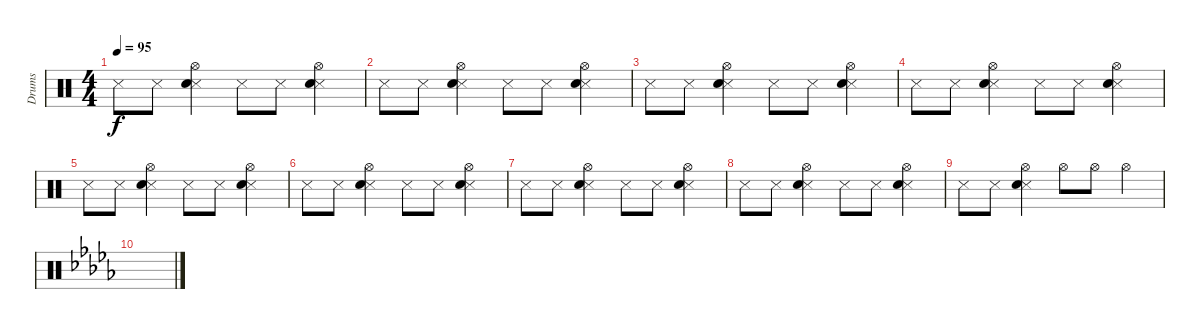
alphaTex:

\track ("Drums" "Drums") {instrument percussion}
\staff {score}
\articulation defaults
\ts (4 4)
\tempo 95
\clef neutral
\ks c "Snare (side stick) 3".8{dy f} "Snare (side stick) 3".8
("Snare (side stick) 3" "Hi-Hat (open)" "Snare (hit) 2").4 "Snare (side stick) 3".8 "Snare (side stick) 3".8 ("Snare (side stick) 3" "Hi-Hat (open)" "Snare (hit) 2").4 |
"Snare (side stick) 3".8 "Snare (side stick) 3".8 ("Snare (side stick) 3" "Hi-Hat (open)" "Snare (hit) 2").4 "Snare (side stick) 3".8 "Snare (side stick) 3".8 ("Snare (side stick) 3" "Hi-Hat (open)" "Snare (hit) 2").4 |
"Snare (side stick) 3".8 "Snare (side stick) 3".8 ("Snare (side stick) 3" "Hi-Hat (open)" "Snare (hit) 2").4 "Snare (side stick) 3".8 "Snare (side stick) 3".8 ("Snare (side stick) 3" "Hi-Hat (open)" "Snare (hit) 2").4 |
"Snare (side stick) 3".8 "Snare (side stick) 3".8 ("Snare (side stick) 3" "Hi-Hat (open)" "Snare (hit) 2").4 "Snare (side stick) 3".8 "Snare (side stick) 3".8 ("Snare (side stick) 3" "Hi-Hat (open)" "Snare (hit) 2").4 |
"Snare (side stick) 3".8 "Snare (side stick) 3".8 ("Snare (side stick) 3" "Hi-Hat (open)" "Snare (hit) 2").4 "Snare (side stick) 3".8 "Snare (side stick) 3".8 ("Snare (side stick) 3" "Hi-Hat (open)" "Snare (hit) 2").4 |
"Snare (side stick) 3".8 "Snare (side stick) 3".8 ("Snare (side stick) 3" "Hi-Hat (open)" "Snare (hit) 2").4 "Snare (side stick) 3".8 "Snare (side stick) 3".8 ("Snare (side stick) 3" "Hi-Hat (open)" "Snare (hit) 2").4 |
"Snare (side stick) 3".8 "Snare (side stick) 3".8 ("Snare (side stick) 3" "Hi-Hat (open)" "Snare (hit) 2").4 "Snare (side stick) 3".8 "Snare (side stick) 3".8 ("Snare (side stick) 3" "Hi-Hat (open)" "Snare (hit) 2").4 |
"Snare (side stick) 3".8 "Snare (side stick) 3".8 ("Snare (side stick) 3" "Hi-Hat (open)" "Snare (hit) 2").4 "Snare (side stick) 3".8 "Snare (side stick) 3".8 ("Snare (side stick) 3" "Hi-Hat (open)" "Snare (hit) 2").4 |
"Snare (side stick) 3".8 "Snare (side stick) 3".8 ("Snare (side stick) 3" "Hi-Hat (open)" "Snare (hit) 2").4 "Hi-Hat (open)".8 "Hi-Hat (open)".8 "Hi-Hat (open)".4 |
\ks db
